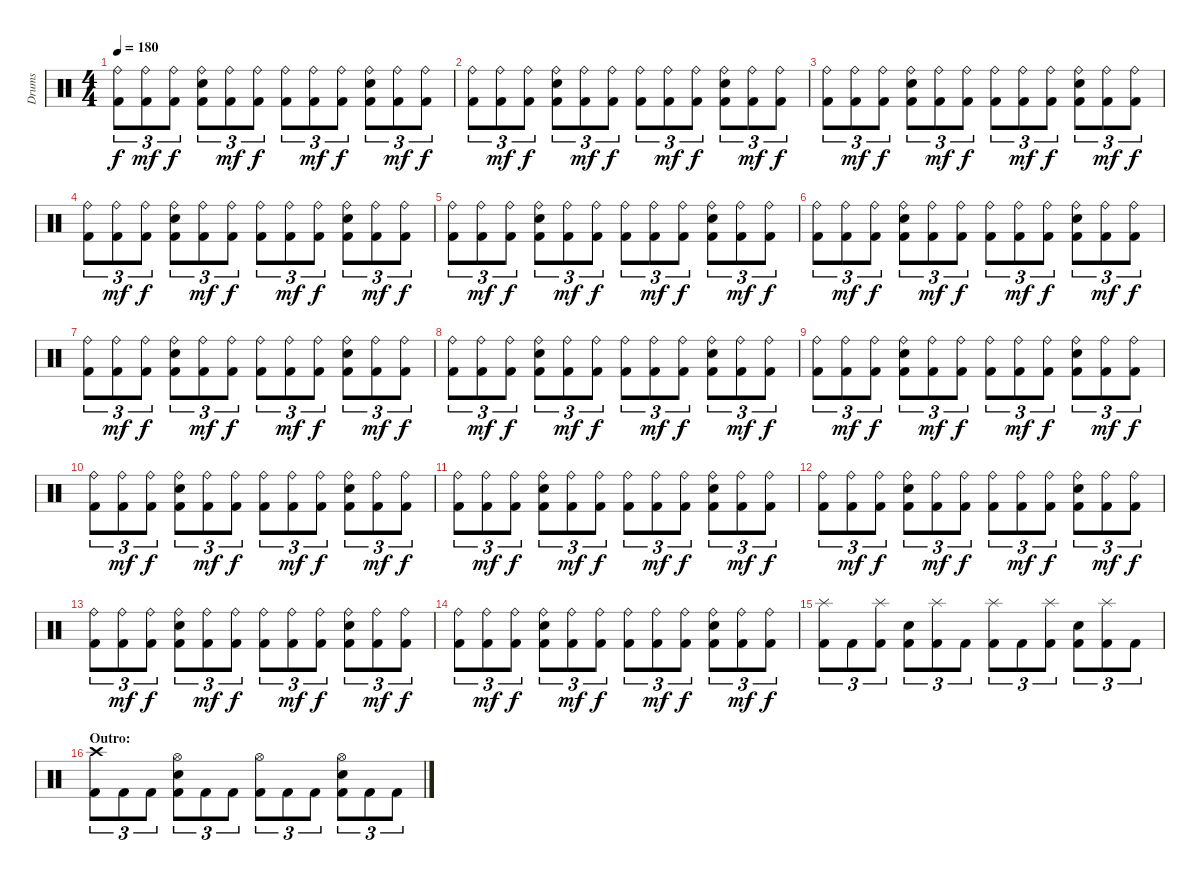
\track ("Drums" "Drums") {instrument percussion}
\staff {score}
\articulation defaults
\ts (4 4)
\tempo 180
\clef neutral
\ks c
("Ride (bell)" "Kick (hit) 2").8{tu (3 2) dy f} ("Ride (bell)" "Kick (hit) 2").8{tu (3 2) dy mf} ("Ride (bell)" "Kick (hit) 2").8{tu (3 2) dy f} ("Ride (bell)" "Electric Snare (hit)" "Kick (hit) 2").8{tu (3 2)} ("Ride (bell)" "Kick (hit) 2").8{tu (3 2) dy mf} ("Ride (bell)" "Kick (hit) 2").8{tu (3 2) dy f} ("Ride (bell)" "Kick (hit) 2").8{tu (3 2)} ("Ride (bell)" "Kick (hit) 2").8{tu (3 2) dy mf} ("Ride (bell)" "Kick (hit) 2").8{tu (3 2) dy f} ("Ride (bell)" "Electric Snare (hit)" "Kick (hit) 2").8{tu (3 2)} ("Ride (bell)" "Kick (hit) 2").8{tu (3 2) dy mf} ("Ride (bell)" "Kick (hit) 2").8{tu (3 2) dy f} |
("Ride (bell)" "Kick (hit) 2").8{tu (3 2)} ("Ride (bell)" "Kick (hit) 2").8{tu (3 2) dy mf} ("Ride (bell)" "Kick (hit) 2").8{tu (3 2) dy f} ("Ride (bell)" "Electric Snare (hit)" "Kick (hit) 2").8{tu (3 2)} ("Ride (bell)" "Kick (hit) 2").8{tu (3 2) dy mf} ("Ride (bell)" "Kick (hit) 2").8{tu (3 2) dy f} ("Ride (bell)" "Kick (hit) 2").8{tu (3 2)} ("Ride (bell)" "Kick (hit) 2").8{tu (3 2) dy mf} ("Ride (bell)" "Kick (hit) 2").8{tu (3 2) dy f} ("Ride (bell)" "Electric Snare (hit)" "Kick (hit) 2").8{tu (3 2)} ("Ride (bell)" "Kick (hit) 2").8{tu (3 2) dy mf} ("Ride (bell)" "Kick (hit) 2").8{tu (3 2) dy f} |
("Ride (bell)" "Kick (hit) 2").8{tu (3 2)} ("Ride (bell)" "Kick (hit) 2").8{tu (3 2) dy mf} ("Ride (bell)" "Kick (hit) 2").8{tu (3 2) dy f} ("Ride (bell)" "Electric Snare (hit)" "Kick (hit) 2").8{tu (3 2)} ("Ride (bell)" "Kick (hit) 2").8{tu (3 2) dy mf} ("Ride (bell)" "Kick (hit) 2").8{tu (3 2) dy f} ("Ride (bell)" "Kick (hit) 2").8{tu (3 2)} ("Ride (bell)" "Kick (hit) 2").8{tu (3 2) dy mf} ("Ride (bell)" "Kick (hit) 2").8{tu (3 2) dy f} ("Ride (bell)" "Electric Snare (hit)" "Kick (hit) 2").8{tu (3 2)} ("Ride (bell)" "Kick (hit) 2").8{tu (3 2) dy mf} ("Ride (bell)" "Kick (hit) 2").8{tu (3 2) dy f} |
("Ride (bell)" "Kick (hit) 2").8{tu (3 2)} ("Ride (bell)" "Kick (hit) 2").8{tu (3 2) dy mf} ("Ride (bell)" "Kick (hit) 2").8{tu (3 2) dy f} ("Ride (bell)" "Electric Snare (hit)" "Kick (hit) 2").8{tu (3 2)} ("Ride (bell)" "Kick (hit) 2").8{tu (3 2) dy mf} ("Ride (bell)" "Kick (hit) 2").8{tu (3 2) dy f} ("Ride (bell)" "Kick (hit) 2").8{tu (3 2)} ("Ride (bell)" "Kick (hit) 2").8{tu (3 2) dy mf} ("Ride (bell)" "Kick (hit) 2").8{tu (3 2) dy f} ("Ride (bell)" "Electric Snare (hit)" "Kick (hit) 2").8{tu (3 2)} ("Ride (bell)" "Kick (hit) 2").8{tu (3 2) dy mf} ("Ride (bell)" "Kick (hit) 2").8{tu (3 2) dy f} |
("Ride (bell)" "Kick (hit) 2").8{tu (3 2)} ("Ride (bell)" "Kick (hit) 2").8{tu (3 2) dy mf} ("Ride (bell)" "Kick (hit) 2").8{tu (3 2) dy f} ("Ride (bell)" "Electric Snare (hit)" "Kick (hit) 2").8{tu (3 2)} ("Ride (bell)" "Kick (hit) 2").8{tu (3 2) dy mf} ("Ride (bell)" "Kick (hit) 2").8{tu (3 2) dy f} ("Ride (bell)" "Kick (hit) 2").8{tu (3 2)} ("Ride (bell)" "Kick (hit) 2").8{tu (3 2) dy mf} ("Ride (bell)" "Kick (hit) 2").8{tu (3 2) dy f} ("Ride (bell)" "Electric Snare (hit)" "Kick (hit) 2").8{tu (3 2)} ("Ride (bell)" "Kick (hit) 2").8{tu (3 2) dy mf} ("Ride (bell)" "Kick (hit) 2").8{tu (3 2) dy f} |
("Ride (bell)" "Kick (hit) 2").8{tu (3 2)} ("Ride (bell)" "Kick (hit) 2").8{tu (3 2) dy mf} ("Ride (bell)" "Kick (hit) 2").8{tu (3 2) dy f} ("Ride (bell)" "Electric Snare (hit)" "Kick (hit) 2").8{tu (3 2)} ("Ride (bell)" "Kick (hit) 2").8{tu (3 2) dy mf} ("Ride (bell)" "Kick (hit) 2").8{tu (3 2) dy f} ("Ride (bell)" "Kick (hit) 2").8{tu (3 2)} ("Ride (bell)" "Kick (hit) 2").8{tu (3 2) dy mf} ("Ride (bell)" "Kick (hit) 2").8{tu (3 2) dy f} ("Ride (bell)" "Electric Snare (hit)" "Kick (hit) 2").8{tu (3 2)} ("Ride (bell)" "Kick (hit) 2").8{tu (3 2) dy mf} ("Ride (bell)" "Kick (hit) 2").8{tu (3 2) dy f} |
("Ride (bell)" "Kick (hit) 2").8{tu (3 2)} ("Ride (bell)" "Kick (hit) 2").8{tu (3 2) dy mf} ("Ride (bell)" "Kick (hit) 2").8{tu (3 2) dy f} ("Ride (bell)" "Electric Snare (hit)" "Kick (hit) 2").8{tu (3 2)} ("Ride (bell)" "Kick (hit) 2").8{tu (3 2) dy mf} ("Ride (bell)" "Kick (hit) 2").8{tu (3 2) dy f} ("Ride (bell)" "Kick (hit) 2").8{tu (3 2)} ("Ride (bell)" "Kick (hit) 2").8{tu (3 2) dy mf} ("Ride (bell)" "Kick (hit) 2").8{tu (3 2) dy f} ("Ride (bell)" "Electric Snare (hit)" "Kick (hit) 2").8{tu (3 2)} ("Ride (bell)" "Kick (hit) 2").8{tu (3 2) dy mf} ("Ride (bell)" "Kick (hit) 2").8{tu (3 2) dy f} |
("Ride (bell)" "Kick (hit) 2").8{tu (3 2)} ("Ride (bell)" "Kick (hit) 2").8{tu (3 2) dy mf} ("Ride (bell)" "Kick (hit) 2").8{tu (3 2) dy f} ("Ride (bell)" "Electric Snare (hit)" "Kick (hit) 2").8{tu (3 2)} ("Ride (bell)" "Kick (hit) 2").8{tu (3 2) dy mf} ("Ride (bell)" "Kick (hit) 2").8{tu (3 2) dy f} ("Ride (bell)" "Kick (hit) 2").8{tu (3 2)} ("Ride (bell)" "Kick (hit) 2").8{tu (3 2) dy mf} ("Ride (bell)" "Kick (hit) 2").8{tu (3 2) dy f} ("Ride (bell)" "Electric Snare (hit)" "Kick (hit) 2").8{tu (3 2)} ("Ride (bell)" "Kick (hit) 2").8{tu (3 2) dy mf} ("Ride (bell)" "Kick (hit) 2").8{tu (3 2) dy f} |
("Ride (bell)" "Kick (hit) 2").8{tu (3 2)} ("Ride (bell)" "Kick (hit) 2").8{tu (3 2) dy mf} ("Ride (bell)" "Kick (hit) 2").8{tu (3 2) dy f} ("Ride (bell)" "Electric Snare (hit)" "Kick (hit) 2").8{tu (3 2)} ("Ride (bell)" "Kick (hit) 2").8{tu (3 2) dy mf} ("Ride (bell)" "Kick (hit) 2").8{tu (3 2) dy f} ("Ride (bell)" "Kick (hit) 2").8{tu (3 2)} ("Ride (bell)" "Kick (hit) 2").8{tu (3 2) dy mf} ("Ride (bell)" "Kick (hit) 2").8{tu (3 2) dy f} ("Ride (bell)" "Electric Snare (hit)" "Kick (hit) 2").8{tu (3 2)} ("Ride (bell)" "Kick (hit) 2").8{tu (3 2) dy mf} ("Ride (bell)" "Kick (hit) 2").8{tu (3 2) dy f} |
("Ride (bell)" "Kick (hit) 2").8{tu (3 2)} ("Ride (bell)" "Kick (hit) 2").8{tu (3 2) dy mf} ("Ride (bell)" "Kick (hit) 2").8{tu (3 2) dy f} ("Ride (bell)" "Electric Snare (hit)" "Kick (hit) 2").8{tu (3 2)} ("Ride (bell)" "Kick (hit) 2").8{tu (3 2) dy mf} ("Ride (bell)" "Kick (hit) 2").8{tu (3 2) dy f} ("Ride (bell)" "Kick (hit) 2").8{tu (3 2)} ("Ride (bell)" "Kick (hit) 2").8{tu (3 2) dy mf} ("Ride (bell)" "Kick (hit) 2").8{tu (3 2) dy f} ("Ride (bell)" "Electric Snare (hit)" "Kick (hit) 2").8{tu (3 2)} ("Ride (bell)" "Kick (hit) 2").8{tu (3 2) dy mf} ("Ride (bell)" "Kick (hit) 2").8{tu (3 2) dy f} |
("Ride (bell)" "Kick (hit) 2").8{tu (3 2)} ("Ride (bell)" "Kick (hit) 2").8{tu (3 2) dy mf} ("Ride (bell)" "Kick (hit) 2").8{tu (3 2) dy f} ("Ride (bell)" "Electric Snare (hit)" "Kick (hit) 2").8{tu (3 2)} ("Ride (bell)" "Kick (hit) 2").8{tu (3 2) dy mf} ("Ride (bell)" "Kick (hit) 2").8{tu (3 2) dy f} ("Ride (bell)" "Kick (hit) 2").8{tu (3 2)} ("Ride (bell)" "Kick (hit) 2").8{tu (3 2) dy mf} ("Ride (bell)" "Kick (hit) 2").8{tu (3 2) dy f} ("Ride (bell)" "Electric Snare (hit)" "Kick (hit) 2").8{tu (3 2)} ("Ride (bell)" "Kick (hit) 2").8{tu (3 2) dy mf} ("Ride (bell)" "Kick (hit) 2").8{tu (3 2) dy f} |
("Ride (bell)" "Kick (hit) 2").8{tu (3 2)} ("Ride (bell)" "Kick (hit) 2").8{tu (3 2) dy mf} ("Ride (bell)" "Kick (hit) 2").8{tu (3 2) dy f} ("Ride (bell)" "Electric Snare (hit)" "Kick (hit) 2").8{tu (3 2)} ("Ride (bell)" "Kick (hit) 2").8{tu (3 2) dy mf} ("Ride (bell)" "Kick (hit) 2").8{tu (3 2) dy f} ("Ride (bell)" "Kick (hit) 2").8{tu (3 2)} ("Ride (bell)" "Kick (hit) 2").8{tu (3 2) dy mf} ("Ride (bell)" "Kick (hit) 2").8{tu (3 2) dy f} ("Ride (bell)" "Electric Snare (hit)" "Kick (hit) 2").8{tu (3 2)} ("Ride (bell)" "Kick (hit) 2").8{tu (3 2) dy mf} ("Ride (bell)" "Kick (hit) 2").8{tu (3 2) dy f} |
("Ride (bell)" "Kick (hit) 2").8{tu (3 2)} ("Ride (bell)" "Kick (hit) 2").8{tu (3 2) dy mf} ("Ride (bell)" "Kick (hit) 2").8{tu (3 2) dy f} ("Ride (bell)" "Electric Snare (hit)" "Kick (hit) 2").8{tu (3 2)} ("Ride (bell)" "Kick (hit) 2").8{tu (3 2) dy mf} ("Ride (bell)" "Kick (hit) 2").8{tu (3 2) dy f} ("Ride (bell)" "Kick (hit) 2").8{tu (3 2)} ("Ride (bell)" "Kick (hit) 2").8{tu (3 2) dy mf} ("Ride (bell)" "Kick (hit) 2").8{tu (3 2) dy f} ("Ride (bell)" "Electric Snare (hit)" "Kick (hit) 2").8{tu (3 2)} ("Ride (bell)" "Kick (hit) 2").8{tu (3 2) dy mf} ("Ride (bell)" "Kick (hit) 2").8{tu (3 2) dy f} |
("Ride (bell)" "Kick (hit) 2").8{tu (3 2)} ("Ride (bell)" "Kick (hit) 2").8{tu (3 2) dy mf} ("Ride (bell)" "Kick (hit) 2").8{tu (3 2) dy f} ("Ride (bell)" "Electric Snare (hit)" "Kick (hit) 2").8{tu (3 2)} ("Ride (bell)" "Kick (hit) 2").8{tu (3 2) dy mf} ("Ride (bell)" "Kick (hit) 2").8{tu (3 2) dy f} ("Ride (bell)" "Kick (hit) 2").8{tu (3 2)} ("Ride (bell)" "Kick (hit) 2").8{tu (3 2) dy mf} ("Ride (bell)" "Kick (hit) 2").8{tu (3 2) dy f} ("Ride (bell)" "Electric Snare (hit)" "Kick (hit) 2").8{tu (3 2)} ("Ride (bell)" "Kick (hit) 2").8{tu (3 2) dy mf} ("Ride (bell)" "Kick (hit) 2").8{tu (3 2) dy f} |
("Splash (hit)" "Kick (hit) 2").8{tu (3 2)} "Kick (hit) 2".8{tu (3 2)} ("Splash (hit)" "Kick (hit) 2").8{tu (3 2)} ("Electric Snare (hit)" "Kick (hit) 2").8{tu (3 2)} ("Splash (hit)" "Kick (hit) 2").8{tu (3 2)} "Kick (hit) 2".8{tu (3 2)} ("Splash (hit)" "Kick (hit) 2").8{tu (3 2)} "Kick (hit) 2".8{tu (3 2)} ("Splash (hit)" "Kick (hit) 2").8{tu (3 2)} ("Electric Snare (hit)" "Kick (hit) 2").8{tu (3 2)} ("Splash (hit)" "Kick (hit) 2").8{tu (3 2)} "Kick (hit) 2".8{tu (3 2)} |
\section ("" "Outro:")
("Crash high (hit)" "Kick (hit) 2").8{tu (3 2)} "Kick (hit) 2".8{tu (3 2)} "Kick (hit) 2".8{tu (3 2)} ("Hi-Hat (open)" "Electric Snare (hit)" "Kick (hit) 2").8{tu (3 2)} "Kick (hit) 2".8{tu (3 2)} "Kick (hit) 2".8{tu (3 2)} ("Hi-Hat (open)" "Kick (hit) 2").8{tu (3 2)} "Kick (hit) 2".8{tu (3 2)} "Kick (hit) 2".8{tu (3 2)} ("Hi-Hat (open)" "Electric Snare (hit)" "Kick (hit) 2").8{tu (3 2)} "Kick (hit) 2".8{tu (3 2)} "Kick (hit) 2".8{tu (3 2)}
